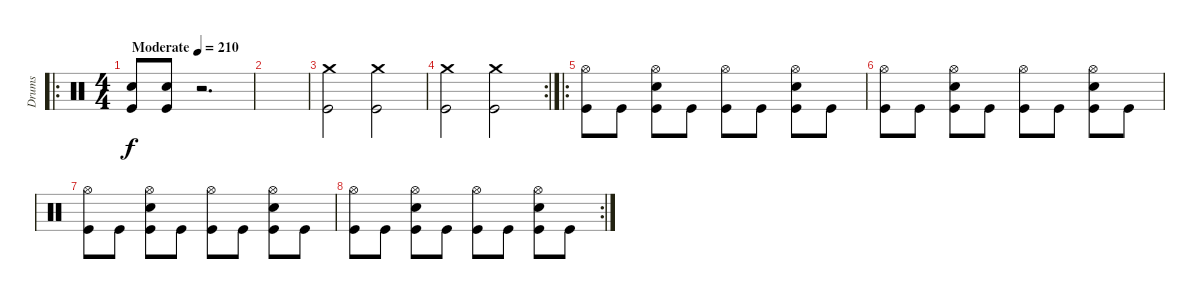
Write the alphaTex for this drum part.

\track ("Drums" "Drums") {instrument percussion}
\staff {score}
\articulation defaults
\ro
\ts (4 4)
\tempo (210 "Moderate")
\clef neutral
\ks c
("Snare (hit) 2" "Kick (hit)").8{dy f} ("Snare (hit) 2" "Kick (hit)").8 r.2{d} |
|
("Crash medium (hit)" "Kick (hit)").2 ("Crash medium (hit)" "Kick (hit)").2 |
\rc 2
("Crash medium (hit)" "Kick (hit)").2 ("Crash medium (hit)" "Kick (hit)").2 |
\ro
("Hi-Hat (open)" "Kick (hit)").8 "Kick (hit)".8 ("Hi-Hat (open)" "Snare (hit) 2" "Kick (hit)").8 "Kick (hit)".8 ("Hi-Hat (open)" "Kick (hit)").8 "Kick (hit)".8 ("Hi-Hat (open)" "Snare (hit) 2" "Kick (hit)").8 "Kick (hit)".8 |
("Hi-Hat (open)" "Kick (hit)").8 "Kick (hit)".8 ("Hi-Hat (open)" "Snare (hit) 2" "Kick (hit)").8 "Kick (hit)".8 ("Hi-Hat (open)" "Kick (hit)").8 "Kick (hit)".8 ("Hi-Hat (open)" "Snare (hit) 2" "Kick (hit)").8 "Kick (hit)".8 |
("Hi-Hat (open)" "Kick (hit)").8 "Kick (hit)".8 ("Hi-Hat (open)" "Snare (hit) 2" "Kick (hit)").8 "Kick (hit)".8 ("Hi-Hat (open)" "Kick (hit)").8 "Kick (hit)".8 ("Hi-Hat (open)" "Snare (hit) 2" "Kick (hit)").8 "Kick (hit)".8 |
\rc 2
("Hi-Hat (open)" "Kick (hit)").8 "Kick (hit)".8 ("Hi-Hat (open)" "Snare (hit) 2" "Kick (hit)").8 "Kick (hit)".8 ("Hi-Hat (open)" "Kick (hit)").8 "Kick (hit)".8 ("Hi-Hat (open)" "Snare (hit) 2" "Kick (hit)").8 "Kick (hit)".8
